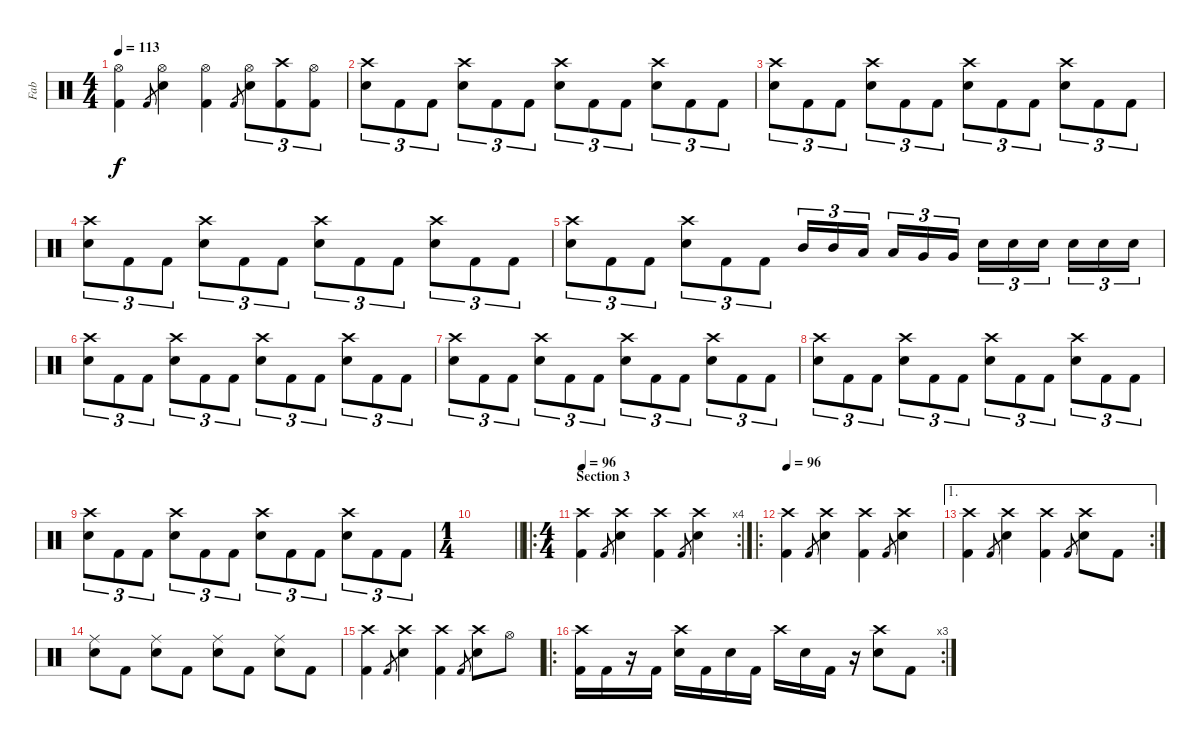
\track ("Fab" "Fab") {instrument percussion}
\staff {score}
\articulation defaults
\ts (4 4)
\tempo 113
\clef neutral
\ks c
("Hi-Hat (open)" "Kick (hit) 2").4{dy f} "Kick (hit) 2".8{gr} ("Hi-Hat (open)" "Electric Snare (hit)").4 ("Hi-Hat (open)" "Kick (hit) 2").4 "Kick (hit) 2".8{gr} ("Hi-Hat (open)" "Electric Snare (hit)").8{tu (3 2)} ("Crash high (hit)" "Kick (hit) 2").8{tu (3 2)} ("Hi-Hat (open)" "Kick (hit) 2").8{tu (3 2)} |
("Crash high (hit)" "Electric Snare (hit)").8{tu (3 2)} "Kick (hit) 2".8{tu (3 2)} "Kick (hit) 2".8{tu (3 2)} ("Crash high (hit)" "Electric Snare (hit)").8{tu (3 2)} "Kick (hit) 2".8{tu (3 2)} "Kick (hit) 2".8{tu (3 2)} ("Crash high (hit)" "Electric Snare (hit)").8{tu (3 2)} "Kick (hit) 2".8{tu (3 2)} "Kick (hit) 2".8{tu (3 2)} ("Crash high (hit)" "Electric Snare (hit)").8{tu (3 2)} "Kick (hit) 2".8{tu (3 2)} "Kick (hit) 2".8{tu (3 2)} |
("Crash high (hit)" "Electric Snare (hit)").8{tu (3 2)} "Kick (hit) 2".8{tu (3 2)} "Kick (hit) 2".8{tu (3 2)} ("Crash high (hit)" "Electric Snare (hit)").8{tu (3 2)} "Kick (hit) 2".8{tu (3 2)} "Kick (hit) 2".8{tu (3 2)} ("Crash high (hit)" "Electric Snare (hit)").8{tu (3 2)} "Kick (hit) 2".8{tu (3 2)} "Kick (hit) 2".8{tu (3 2)} ("Crash high (hit)" "Electric Snare (hit)").8{tu (3 2)} "Kick (hit) 2".8{tu (3 2)} "Kick (hit) 2".8{tu (3 2)} |
("Crash high (hit)" "Electric Snare (hit)").8{tu (3 2)} "Kick (hit) 2".8{tu (3 2)} "Kick (hit) 2".8{tu (3 2)} ("Crash high (hit)" "Electric Snare (hit)").8{tu (3 2)} "Kick (hit) 2".8{tu (3 2)} "Kick (hit) 2".8{tu (3 2)} ("Crash high (hit)" "Electric Snare (hit)").8{tu (3 2)} "Kick (hit) 2".8{tu (3 2)} "Kick (hit) 2".8{tu (3 2)} ("Crash high (hit)" "Electric Snare (hit)").8{tu (3 2)} "Kick (hit) 2".8{tu (3 2)} "Kick (hit) 2".8{tu (3 2)} |
("Crash high (hit)" "Electric Snare (hit)").8{tu (3 2)} "Kick (hit) 2".8{tu (3 2)} "Kick (hit) 2".8{tu (3 2)} ("Crash high (hit)" "Electric Snare (hit)").8{tu (3 2)} "Kick (hit) 2".8{tu (3 2)} "Kick (hit) 2".8{tu (3 2)} "Mid Tom (hit)".16{tu (3 2)} "Mid Tom (hit)".16{tu (3 2)} "Low Tom (hit)".16{tu (3 2)} "Low Tom (hit)".16{tu (3 2)} "Very Low Tom (hit)".16{tu (3 2)} "Very Low Tom (hit)".16{tu (3 2)} "Electric Snare (hit)".16{tu (3 2)} "Electric Snare (hit)".16{tu (3 2)} "Electric Snare (hit)".16{tu (3 2)} "Electric Snare (hit)".16{tu (3 2)} "Electric Snare (hit)".16{tu (3 2)} "Electric Snare (hit)".16{tu (3 2)} |
("Crash high (hit)" "Electric Snare (hit)").8{tu (3 2)} "Kick (hit) 2".8{tu (3 2)} "Kick (hit) 2".8{tu (3 2)} ("Crash high (hit)" "Electric Snare (hit)").8{tu (3 2)} "Kick (hit) 2".8{tu (3 2)} "Kick (hit) 2".8{tu (3 2)} ("Crash high (hit)" "Electric Snare (hit)").8{tu (3 2)} "Kick (hit) 2".8{tu (3 2)} "Kick (hit) 2".8{tu (3 2)} ("Crash high (hit)" "Electric Snare (hit)").8{tu (3 2)} "Kick (hit) 2".8{tu (3 2)} "Kick (hit) 2".8{tu (3 2)} |
("Crash high (hit)" "Electric Snare (hit)").8{tu (3 2)} "Kick (hit) 2".8{tu (3 2)} "Kick (hit) 2".8{tu (3 2)} ("Crash high (hit)" "Electric Snare (hit)").8{tu (3 2)} "Kick (hit) 2".8{tu (3 2)} "Kick (hit) 2".8{tu (3 2)} ("Crash high (hit)" "Electric Snare (hit)").8{tu (3 2)} "Kick (hit) 2".8{tu (3 2)} "Kick (hit) 2".8{tu (3 2)} ("Crash high (hit)" "Electric Snare (hit)").8{tu (3 2)} "Kick (hit) 2".8{tu (3 2)} "Kick (hit) 2".8{tu (3 2)} |
("Crash high (hit)" "Electric Snare (hit)").8{tu (3 2)} "Kick (hit) 2".8{tu (3 2)} "Kick (hit) 2".8{tu (3 2)} ("Crash high (hit)" "Electric Snare (hit)").8{tu (3 2)} "Kick (hit) 2".8{tu (3 2)} "Kick (hit) 2".8{tu (3 2)} ("Crash high (hit)" "Electric Snare (hit)").8{tu (3 2)} "Kick (hit) 2".8{tu (3 2)} "Kick (hit) 2".8{tu (3 2)} ("Crash high (hit)" "Electric Snare (hit)").8{tu (3 2)} "Kick (hit) 2".8{tu (3 2)} "Kick (hit) 2".8{tu (3 2)} |
("Crash high (hit)" "Electric Snare (hit)").8{tu (3 2)} "Kick (hit) 2".8{tu (3 2)} "Kick (hit) 2".8{tu (3 2)} ("Crash high (hit)" "Electric Snare (hit)").8{tu (3 2)} "Kick (hit) 2".8{tu (3 2)} "Kick (hit) 2".8{tu (3 2)} ("Crash high (hit)" "Electric Snare (hit)").8{tu (3 2)} "Kick (hit) 2".8{tu (3 2)} "Kick (hit) 2".8{tu (3 2)} ("Crash high (hit)" "Electric Snare (hit)").8{tu (3 2)} "Kick (hit) 2".8{tu (3 2)} "Kick (hit) 2".8{tu (3 2)} |
\ts (1 4)
\barLineRight lightlight
|
\ro
\rc 4
\ts (4 4)
\section ("" "Section 3")
\tempo 96
("Crash high (hit)" "Kick (hit) 2").4 "Kick (hit) 2".8{gr} ("Crash high (hit)" "Electric Snare (hit)").4 ("Crash high (hit)" "Kick (hit) 2").4 "Kick (hit) 2".8{gr} ("Crash high (hit)" "Electric Snare (hit)").4 |
\ro
\tempo 96
("Crash high (hit)" "Kick (hit) 2").4 "Kick (hit) 2".8{gr} ("Crash high (hit)" "Electric Snare (hit)").4 ("Crash high (hit)" "Kick (hit) 2").4 "Kick (hit) 2".8{gr} ("Crash high (hit)" "Electric Snare (hit)").4 |
\ae 1
\rc 2
("Crash high (hit)" "Kick (hit) 2").4 "Kick (hit) 2".8{gr} ("Crash high (hit)" "Electric Snare (hit)").4 ("Crash high (hit)" "Kick (hit) 2").4 "Kick (hit) 2".8{gr} ("Crash high (hit)" "Electric Snare (hit)").8 "Kick (hit) 2".8 |
("Ride (middle)" "Electric Snare (hit)").8 "Kick (hit) 2".8 ("Ride (middle)" "Electric Snare (hit)").8 "Kick (hit) 2".8 ("Ride (middle)" "Electric Snare (hit)").8 "Kick (hit) 2".8 ("Ride (middle)" "Electric Snare (hit)").8 "Kick (hit) 2".8 |
("Crash high (hit)" "Kick (hit) 2").4 "Kick (hit) 2".8{gr} ("Crash high (hit)" "Electric Snare (hit)").4 ("Crash high (hit)" "Kick (hit) 2").4 "Kick (hit) 2".8{gr} ("Crash high (hit)" "Electric Snare (hit)").8 "Hi-Hat (open)".8 |
\ro
\rc 3
("Crash high (hit)" "Kick (hit) 2").16 "Kick (hit) 2".16 r.16 "Kick (hit) 2".16 ("Crash high (hit)" "Electric Snare (hit)").16 "Kick (hit) 2".16 "Electric Snare (hit)".16 "Kick (hit) 2".16 "Crash high (hit)".16 "Electric Snare (hit)".16 "Kick (hit) 2".16 r.16 ("Crash high (hit)" "Electric Snare (hit)").8 "Kick (hit) 2".8
